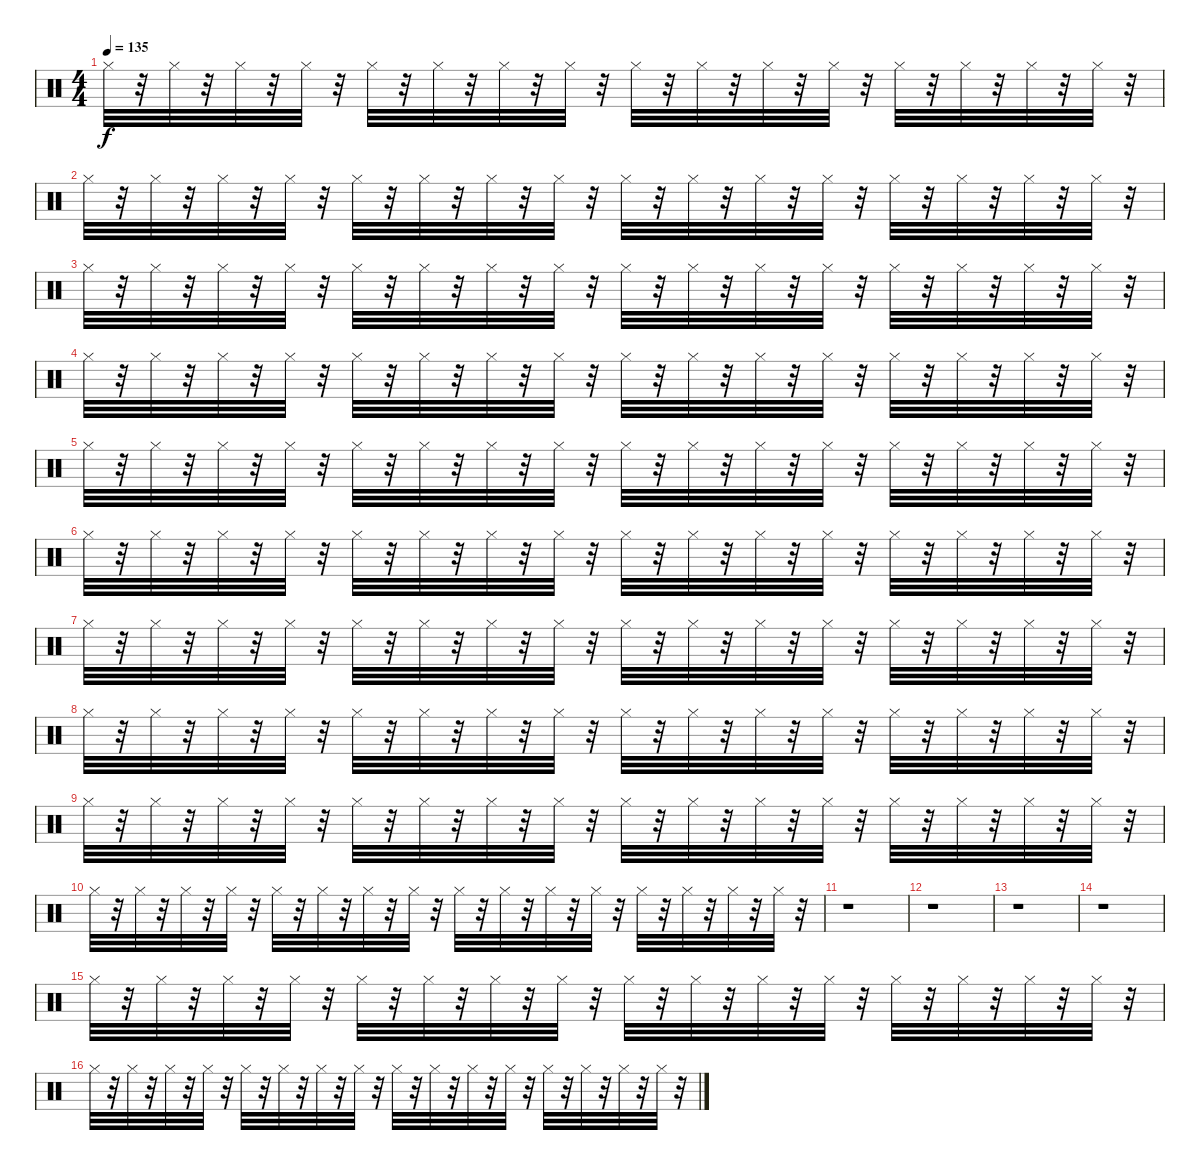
\track "" {instrument percussion}
\staff {score}
\articulation defaults
\ts (4 4)
\tempo 135
\clef neutral
\ks c "Hi-Hat (closed)".32{dy f}
r.32 "Hi-Hat (closed)".32 r.32 "Hi-Hat (closed)".32 r.32 "Hi-Hat (closed)".32 r.32 "Hi-Hat (closed)".32 r.32 "Hi-Hat (closed)".32 r.32 "Hi-Hat (closed)".32 r.32 "Hi-Hat (closed)".32 r.32 "Hi-Hat (closed)".32 r.32 "Hi-Hat (closed)".32 r.32 "Hi-Hat (closed)".32 r.32 "Hi-Hat (closed)".32 r.32 "Hi-Hat (closed)".32 r.32 "Hi-Hat (closed)".32 r.32 "Hi-Hat (closed)".32 r.32 "Hi-Hat (closed)".32 r.32 |
"Hi-Hat (closed)".32 r.32 "Hi-Hat (closed)".32 r.32 "Hi-Hat (closed)".32 r.32 "Hi-Hat (closed)".32 r.32 "Hi-Hat (closed)".32 r.32 "Hi-Hat (closed)".32 r.32 "Hi-Hat (closed)".32 r.32 "Hi-Hat (closed)".32 r.32 "Hi-Hat (closed)".32 r.32 "Hi-Hat (closed)".32 r.32 "Hi-Hat (closed)".32 r.32 "Hi-Hat (closed)".32 r.32 "Hi-Hat (closed)".32 r.32 "Hi-Hat (closed)".32 r.32 "Hi-Hat (closed)".32 r.32 "Hi-Hat (closed)".32 r.32 |
"Hi-Hat (closed)".32 r.32 "Hi-Hat (closed)".32 r.32 "Hi-Hat (closed)".32 r.32 "Hi-Hat (closed)".32 r.32 "Hi-Hat (closed)".32 r.32 "Hi-Hat (closed)".32 r.32 "Hi-Hat (closed)".32 r.32 "Hi-Hat (closed)".32 r.32 "Hi-Hat (closed)".32 r.32 "Hi-Hat (closed)".32 r.32 "Hi-Hat (closed)".32 r.32 "Hi-Hat (closed)".32 r.32 "Hi-Hat (closed)".32 r.32 "Hi-Hat (closed)".32 r.32 "Hi-Hat (closed)".32 r.32 "Hi-Hat (closed)".32 r.32 |
"Hi-Hat (closed)".32 r.32 "Hi-Hat (closed)".32 r.32 "Hi-Hat (closed)".32 r.32 "Hi-Hat (closed)".32 r.32 "Hi-Hat (closed)".32 r.32 "Hi-Hat (closed)".32 r.32 "Hi-Hat (closed)".32 r.32 "Hi-Hat (closed)".32 r.32 "Hi-Hat (closed)".32 r.32 "Hi-Hat (closed)".32 r.32 "Hi-Hat (closed)".32 r.32 "Hi-Hat (closed)".32 r.32 "Hi-Hat (closed)".32 r.32 "Hi-Hat (closed)".32 r.32 "Hi-Hat (closed)".32 r.32 "Hi-Hat (closed)".32 r.32 |
"Hi-Hat (closed)".32 r.32 "Hi-Hat (closed)".32 r.32 "Hi-Hat (closed)".32 r.32 "Hi-Hat (closed)".32 r.32 "Hi-Hat (closed)".32 r.32 "Hi-Hat (closed)".32 r.32 "Hi-Hat (closed)".32 r.32 "Hi-Hat (closed)".32 r.32 "Hi-Hat (closed)".32 r.32 "Hi-Hat (closed)".32 r.32 "Hi-Hat (closed)".32 r.32 "Hi-Hat (closed)".32 r.32 "Hi-Hat (closed)".32 r.32 "Hi-Hat (closed)".32 r.32 "Hi-Hat (closed)".32 r.32 "Hi-Hat (closed)".32 r.32 |
"Hi-Hat (closed)".32 r.32 "Hi-Hat (closed)".32 r.32 "Hi-Hat (closed)".32 r.32 "Hi-Hat (closed)".32 r.32 "Hi-Hat (closed)".32 r.32 "Hi-Hat (closed)".32 r.32 "Hi-Hat (closed)".32 r.32 "Hi-Hat (closed)".32 r.32 "Hi-Hat (closed)".32 r.32 "Hi-Hat (closed)".32 r.32 "Hi-Hat (closed)".32 r.32 "Hi-Hat (closed)".32 r.32 "Hi-Hat (closed)".32 r.32 "Hi-Hat (closed)".32 r.32 "Hi-Hat (closed)".32 r.32 "Hi-Hat (closed)".32 r.32 |
"Hi-Hat (closed)".32 r.32 "Hi-Hat (closed)".32 r.32 "Hi-Hat (closed)".32 r.32 "Hi-Hat (closed)".32 r.32 "Hi-Hat (closed)".32 r.32 "Hi-Hat (closed)".32 r.32 "Hi-Hat (closed)".32 r.32 "Hi-Hat (closed)".32 r.32 "Hi-Hat (closed)".32 r.32 "Hi-Hat (closed)".32 r.32 "Hi-Hat (closed)".32 r.32 "Hi-Hat (closed)".32 r.32 "Hi-Hat (closed)".32 r.32 "Hi-Hat (closed)".32 r.32 "Hi-Hat (closed)".32 r.32 "Hi-Hat (closed)".32 r.32 |
"Hi-Hat (closed)".32 r.32 "Hi-Hat (closed)".32 r.32 "Hi-Hat (closed)".32 r.32 "Hi-Hat (closed)".32 r.32 "Hi-Hat (closed)".32 r.32 "Hi-Hat (closed)".32 r.32 "Hi-Hat (closed)".32 r.32 "Hi-Hat (closed)".32 r.32 "Hi-Hat (closed)".32 r.32 "Hi-Hat (closed)".32 r.32 "Hi-Hat (closed)".32 r.32 "Hi-Hat (closed)".32 r.32 "Hi-Hat (closed)".32 r.32 "Hi-Hat (closed)".32 r.32 "Hi-Hat (closed)".32 r.32 "Hi-Hat (closed)".32 r.32 |
"Hi-Hat (closed)".32 r.32 "Hi-Hat (closed)".32 r.32 "Hi-Hat (closed)".32 r.32 "Hi-Hat (closed)".32 r.32 "Hi-Hat (closed)".32 r.32 "Hi-Hat (closed)".32 r.32 "Hi-Hat (closed)".32 r.32 "Hi-Hat (closed)".32 r.32 "Hi-Hat (closed)".32 r.32 "Hi-Hat (closed)".32 r.32 "Hi-Hat (closed)".32 r.32 "Hi-Hat (closed)".32 r.32 "Hi-Hat (closed)".32 r.32 "Hi-Hat (closed)".32 r.32 "Hi-Hat (closed)".32 r.32 "Hi-Hat (closed)".32 r.32 |
"Hi-Hat (closed)".32 r.32 "Hi-Hat (closed)".32 r.32 "Hi-Hat (closed)".32 r.32 "Hi-Hat (closed)".32 r.32 "Hi-Hat (closed)".32 r.32 "Hi-Hat (closed)".32 r.32 "Hi-Hat (closed)".32 r.32 "Hi-Hat (closed)".32 r.32 "Hi-Hat (closed)".32 r.32 "Hi-Hat (closed)".32 r.32 "Hi-Hat (closed)".32 r.32 "Hi-Hat (closed)".32 r.32 "Hi-Hat (closed)".32 r.32 "Hi-Hat (closed)".32 r.32 "Hi-Hat (closed)".32 r.32 "Hi-Hat (closed)".32 r.32 |
r.1 |
r.1 |
r.1 |
r.1 |
"Hi-Hat (closed)".32 r.32 "Hi-Hat (closed)".32 r.32 "Hi-Hat (closed)".32 r.32 "Hi-Hat (closed)".32 r.32 "Hi-Hat (closed)".32 r.32 "Hi-Hat (closed)".32 r.32 "Hi-Hat (closed)".32 r.32 "Hi-Hat (closed)".32 r.32 "Hi-Hat (closed)".32 r.32 "Hi-Hat (closed)".32 r.32 "Hi-Hat (closed)".32 r.32 "Hi-Hat (closed)".32 r.32 "Hi-Hat (closed)".32 r.32 "Hi-Hat (closed)".32 r.32 "Hi-Hat (closed)".32 r.32 "Hi-Hat (closed)".32 r.32 |
"Hi-Hat (closed)".32 r.32 "Hi-Hat (closed)".32 r.32 "Hi-Hat (closed)".32 r.32 "Hi-Hat (closed)".32 r.32 "Hi-Hat (closed)".32 r.32 "Hi-Hat (closed)".32 r.32 "Hi-Hat (closed)".32 r.32 "Hi-Hat (closed)".32 r.32 "Hi-Hat (closed)".32 r.32 "Hi-Hat (closed)".32 r.32 "Hi-Hat (closed)".32 r.32 "Hi-Hat (closed)".32 r.32 "Hi-Hat (closed)".32 r.32 "Hi-Hat (closed)".32 r.32 "Hi-Hat (closed)".32 r.32 "Hi-Hat (closed)".32 r.32
